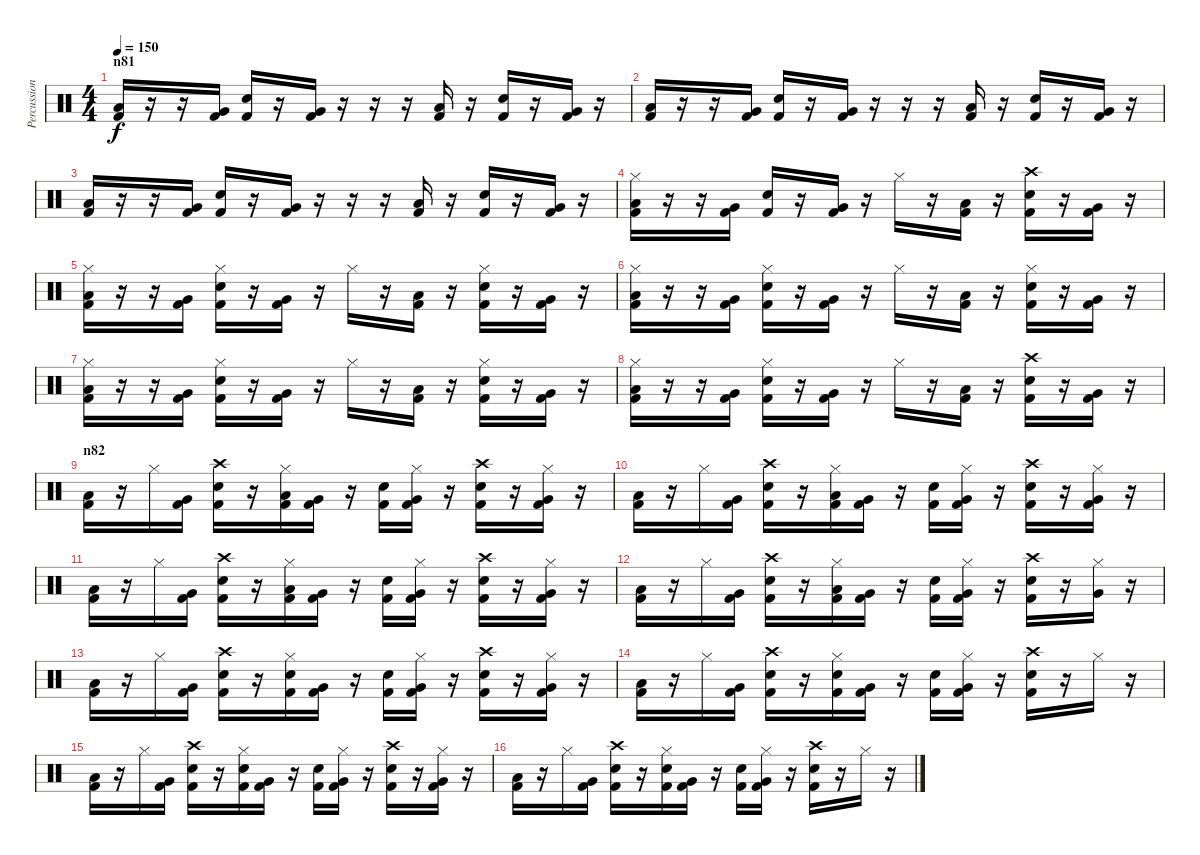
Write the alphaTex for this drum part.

\track ("Percussion" "Percussion") {instrument percussion}
\staff {score}
\articulation defaults
\ts (4 4)
\section ("" "n81")
\tempo 150
\clef neutral
\ks c
("Kick (hit) 2" "Low Floor Tom (hit)").16{dy f} r.16 r.16 ("Kick (hit) 2" "Very Low Tom (hit)").16 ("Kick (hit) 2" "Electric Snare (hit)").16 r.16 ("Kick (hit) 2" "Very Low Tom (hit)").16 r.16 r.16 r.16 ("Kick (hit) 2" "Low Floor Tom (hit)").16 r.16 ("Kick (hit) 2" "Electric Snare (hit)").16 r.16 ("Kick (hit) 2" "Very Low Tom (hit)").16 r.16 |
("Kick (hit) 2" "Low Floor Tom (hit)").16 r.16 r.16 ("Kick (hit) 2" "Very Low Tom (hit)").16 ("Kick (hit) 2" "Electric Snare (hit)").16 r.16 ("Kick (hit) 2" "Very Low Tom (hit)").16 r.16 r.16 r.16 ("Kick (hit) 2" "Low Floor Tom (hit)").16 r.16 ("Kick (hit) 2" "Electric Snare (hit)").16 r.16 ("Kick (hit) 2" "Very Low Tom (hit)").16 r.16 |
("Kick (hit) 2" "Low Floor Tom (hit)").16 r.16 r.16 ("Kick (hit) 2" "Very Low Tom (hit)").16 ("Kick (hit) 2" "Electric Snare (hit)").16 r.16 ("Kick (hit) 2" "Very Low Tom (hit)").16 r.16 r.16 r.16 ("Kick (hit) 2" "Low Floor Tom (hit)").16 r.16 ("Kick (hit) 2" "Electric Snare (hit)").16 r.16 ("Kick (hit) 2" "Very Low Tom (hit)").16 r.16 |
("Kick (hit) 2" "Low Floor Tom (hit)" "Hi-Hat (closed)").16 r.16 r.16 ("Kick (hit) 2" "Very Low Tom (hit)").16 ("Kick (hit) 2" "Electric Snare (hit)").16 r.16 ("Kick (hit) 2" "Very Low Tom (hit)").16 r.16 "Hi-Hat (closed)".16 r.16 ("Kick (hit) 2" "Low Floor Tom (hit)").16 r.16 ("Kick (hit) 2" "Electric Snare (hit)" "Crash high (hit)").16 r.16 ("Kick (hit) 2" "Very Low Tom (hit)").16 r.16 |
("Kick (hit) 2" "Low Floor Tom (hit)" "Hi-Hat (closed)").16 r.16 r.16 ("Kick (hit) 2" "Very Low Tom (hit)").16 ("Kick (hit) 2" "Electric Snare (hit)" "Hi-Hat (closed)").16 r.16 ("Kick (hit) 2" "Very Low Tom (hit)").16 r.16 "Hi-Hat (closed)".16 r.16 ("Kick (hit) 2" "Low Floor Tom (hit)").16 r.16 ("Kick (hit) 2" "Electric Snare (hit)" "Hi-Hat (closed)").16 r.16 ("Kick (hit) 2" "Very Low Tom (hit)").16 r.16 |
("Kick (hit) 2" "Low Floor Tom (hit)" "Hi-Hat (closed)").16 r.16 r.16 ("Kick (hit) 2" "Very Low Tom (hit)").16 ("Kick (hit) 2" "Electric Snare (hit)" "Hi-Hat (closed)").16 r.16 ("Kick (hit) 2" "Very Low Tom (hit)").16 r.16 "Hi-Hat (closed)".16 r.16 ("Kick (hit) 2" "Low Floor Tom (hit)").16 r.16 ("Kick (hit) 2" "Electric Snare (hit)" "Hi-Hat (closed)").16 r.16 ("Kick (hit) 2" "Very Low Tom (hit)").16 r.16 |
("Kick (hit) 2" "Low Floor Tom (hit)" "Hi-Hat (closed)").16 r.16 r.16 ("Kick (hit) 2" "Very Low Tom (hit)").16 ("Kick (hit) 2" "Electric Snare (hit)" "Hi-Hat (closed)").16 r.16 ("Kick (hit) 2" "Very Low Tom (hit)").16 r.16 "Hi-Hat (closed)".16 r.16 ("Kick (hit) 2" "Low Floor Tom (hit)").16 r.16 ("Kick (hit) 2" "Electric Snare (hit)" "Hi-Hat (closed)").16 r.16 ("Kick (hit) 2" "Very Low Tom (hit)").16 r.16 |
("Kick (hit) 2" "Low Floor Tom (hit)" "Hi-Hat (closed)").16 r.16 r.16 ("Kick (hit) 2" "Very Low Tom (hit)").16 ("Kick (hit) 2" "Electric Snare (hit)" "Hi-Hat (closed)").16 r.16 ("Kick (hit) 2" "Very Low Tom (hit)").16 r.16 "Hi-Hat (closed)".16 r.16 ("Kick (hit) 2" "Low Floor Tom (hit)").16 r.16 ("Kick (hit) 2" "Electric Snare (hit)" "Crash high (hit)").16 r.16 ("Kick (hit) 2" "Very Low Tom (hit)").16 r.16 |
\section ("" "n82")
("Kick (hit) 2" "Low Floor Tom (hit)").16 r.16 "Hi-Hat (closed)".16 ("Kick (hit) 2" "Very Low Tom (hit)").16 ("Kick (hit) 2" "Electric Snare (hit)" "Crash high (hit)").16 r.16 ("Kick (hit) 2" "Low Floor Tom (hit)" "Hi-Hat (closed)").16 ("Kick (hit) 2" "Very Low Tom (hit)").16 r.16 ("Kick (hit) 2" "Electric Snare (hit)").16 ("Kick (hit) 2" "Very Low Tom (hit)" "Hi-Hat (closed)").16 r.16 ("Kick (hit) 2" "Electric Snare (hit)" "Crash high (hit)").16 r.16 ("Kick (hit) 2" "Very Low Tom (hit)" "Hi-Hat (closed)").16 r.16 |
("Kick (hit) 2" "Low Floor Tom (hit)").16 r.16 "Hi-Hat (closed)".16 ("Kick (hit) 2" "Very Low Tom (hit)").16 ("Kick (hit) 2" "Electric Snare (hit)" "Crash high (hit)").16 r.16 ("Kick (hit) 2" "Low Floor Tom (hit)" "Hi-Hat (closed)").16 ("Kick (hit) 2" "Very Low Tom (hit)").16 r.16 ("Kick (hit) 2" "Electric Snare (hit)").16 ("Kick (hit) 2" "Very Low Tom (hit)" "Hi-Hat (closed)").16 r.16 ("Kick (hit) 2" "Electric Snare (hit)" "Crash high (hit)").16 r.16 ("Kick (hit) 2" "Very Low Tom (hit)" "Hi-Hat (closed)").16 r.16 |
("Kick (hit) 2" "Low Floor Tom (hit)").16 r.16 "Hi-Hat (closed)".16 ("Kick (hit) 2" "Very Low Tom (hit)").16 ("Kick (hit) 2" "Electric Snare (hit)" "Crash high (hit)").16 r.16 ("Kick (hit) 2" "Low Floor Tom (hit)" "Hi-Hat (closed)").16 ("Kick (hit) 2" "Very Low Tom (hit)").16 r.16 ("Kick (hit) 2" "Electric Snare (hit)").16 ("Kick (hit) 2" "Very Low Tom (hit)" "Hi-Hat (closed)").16 r.16 ("Kick (hit) 2" "Electric Snare (hit)" "Crash high (hit)").16 r.16 ("Kick (hit) 2" "Very Low Tom (hit)" "Hi-Hat (closed)").16 r.16 |
("Kick (hit) 2" "Low Floor Tom (hit)").16 r.16 "Hi-Hat (closed)".16 ("Kick (hit) 2" "Very Low Tom (hit)").16 ("Kick (hit) 2" "Electric Snare (hit)" "Crash high (hit)").16 r.16 ("Kick (hit) 2" "Low Floor Tom (hit)" "Hi-Hat (closed)").16 ("Kick (hit) 2" "Very Low Tom (hit)").16 r.16 ("Kick (hit) 2" "Electric Snare (hit)").16 ("Kick (hit) 2" "Very Low Tom (hit)" "Hi-Hat (closed)").16 r.16 ("Kick (hit) 2" "Electric Snare (hit)" "Crash high (hit)").16 r.16 ("Very Low Tom (hit)" "Hi-Hat (closed)").16 r.16 |
("Kick (hit) 2" "Low Floor Tom (hit)").16 r.16 "Hi-Hat (closed)".16 ("Kick (hit) 2" "Very Low Tom (hit)").16 ("Kick (hit) 2" "Electric Snare (hit)" "Crash high (hit)").16 r.16 ("Kick (hit) 2" "Electric Snare (hit)" "Hi-Hat (closed)").16 ("Kick (hit) 2" "Very Low Tom (hit)").16 r.16 ("Kick (hit) 2" "Electric Snare (hit)").16 ("Kick (hit) 2" "Very Low Tom (hit)" "Hi-Hat (closed)").16 r.16 ("Kick (hit) 2" "Electric Snare (hit)" "Crash high (hit)").16 r.16 ("Kick (hit) 2" "Very Low Tom (hit)" "Hi-Hat (closed)").16 r.16 |
("Kick (hit) 2" "Low Floor Tom (hit)").16 r.16 "Hi-Hat (closed)".16 ("Kick (hit) 2" "Very Low Tom (hit)").16 ("Kick (hit) 2" "Electric Snare (hit)" "Crash high (hit)").16 r.16 ("Kick (hit) 2" "Electric Snare (hit)" "Hi-Hat (closed)").16 ("Kick (hit) 2" "Very Low Tom (hit)").16 r.16 ("Kick (hit) 2" "Electric Snare (hit)").16 ("Kick (hit) 2" "Very Low Tom (hit)" "Hi-Hat (closed)").16 r.16 ("Kick (hit) 2" "Electric Snare (hit)" "Crash high (hit)").16 r.16 "Hi-Hat (closed)".16 r.16 |
("Kick (hit) 2" "Low Floor Tom (hit)").16 r.16 "Hi-Hat (closed)".16 ("Kick (hit) 2" "Very Low Tom (hit)").16 ("Kick (hit) 2" "Electric Snare (hit)" "Crash high (hit)").16 r.16 ("Kick (hit) 2" "Electric Snare (hit)" "Hi-Hat (closed)").16 ("Kick (hit) 2" "Very Low Tom (hit)").16 r.16 ("Kick (hit) 2" "Electric Snare (hit)").16 ("Kick (hit) 2" "Very Low Tom (hit)" "Hi-Hat (closed)").16 r.16 ("Kick (hit) 2" "Electric Snare (hit)" "Crash high (hit)").16 r.16 ("Kick (hit) 2" "Very Low Tom (hit)" "Hi-Hat (closed)").16 r.16 |
("Kick (hit) 2" "Low Floor Tom (hit)").16 r.16 "Hi-Hat (closed)".16 ("Kick (hit) 2" "Very Low Tom (hit)").16 ("Kick (hit) 2" "Electric Snare (hit)" "Crash high (hit)").16 r.16 ("Kick (hit) 2" "Electric Snare (hit)" "Hi-Hat (closed)").16 ("Kick (hit) 2" "Very Low Tom (hit)").16 r.16 ("Kick (hit) 2" "Electric Snare (hit)").16 ("Kick (hit) 2" "Very Low Tom (hit)" "Hi-Hat (closed)").16 r.16 ("Kick (hit) 2" "Electric Snare (hit)" "Crash high (hit)").16 r.16 "Hi-Hat (closed)".16 r.16
